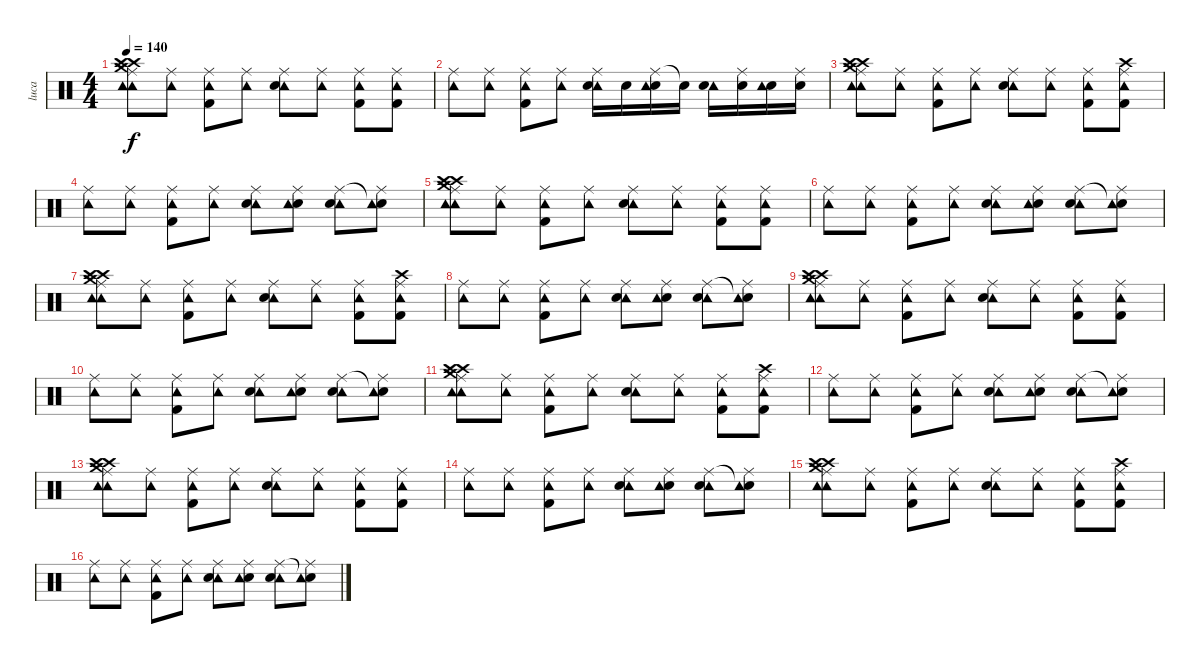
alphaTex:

\track ("luca" "luca") {instrument percussion}
\staff {score}
\articulation defaults
\ts (4 4)
\tempo 140
\clef neutral
\ks c
("Crash high (hit)" "Ride (middle)" "Tambourine (hit)" "Crash high (hit)" "Crash medium (hit)" "Tambourine (hit)").8{dy f} ("Ride (middle)" "Tambourine (hit)").8 ("Tambourine (hit)" "Ride (middle)" "Kick (hit) 2").8 ("Ride (middle)" "Tambourine (hit)").8 ("Tambourine (hit)" "Ride (middle)" "Snare (hit) 2").8 ("Ride (middle)" "Tambourine (hit)").8 ("Tambourine (hit)" "Ride (middle)" "Kick (hit) 2").8 ("Ride (middle)" "Kick (hit) 2" "Tambourine (hit)").8 |
("Tambourine (hit)" "Ride (middle)").8 ("Ride (middle)" "Tambourine (hit)").8 ("Tambourine (hit)" "Ride (middle)" "Kick (hit) 2").8 ("Ride (middle)" "Tambourine (hit)").8 ("Tambourine (hit)" "Ride (middle)" "Snare (hit) 2").16 "Snare (hit) 2".16 ("Ride (middle)" "Snare (hit) 2" "Tambourine (hit)").16 "Snare (hit)"{t}.16 ("Tambourine (hit)" "Snare (hit) 2").16 ("Ride (middle)" "Snare (hit) 2").16 ("Snare (hit) 2" "Tambourine (hit)").16 ("Ride (middle)" "Snare (hit) 2").16 |
("Crash high (hit)" "Ride (middle)" "Tambourine (hit)" "Crash high (hit)" "Crash medium (hit)" "Tambourine (hit)").8 ("Ride (middle)" "Tambourine (hit)").8 ("Tambourine (hit)" "Ride (middle)" "Kick (hit) 2").8 ("Ride (middle)" "Tambourine (hit)").8 ("Tambourine (hit)" "Ride (middle)" "Snare (hit) 2").8 ("Ride (middle)" "Tambourine (hit)").8 ("Tambourine (hit)" "Ride (middle)" "Kick (hit) 2").8 ("Ride (middle)" "Kick (hit) 2" "Crash high (hit)" "Tambourine (hit)").8 |
("Tambourine (hit)" "Ride (middle)").8 ("Ride (middle)" "Tambourine (hit)").8 ("Tambourine (hit)" "Ride (middle)" "Kick (hit) 2").8 ("Ride (middle)" "Tambourine (hit)").8 ("Tambourine (hit)" "Ride (middle)" "Snare (hit) 2").8 ("Ride (middle)" "Snare (hit) 2" "Tambourine (hit)").8 ("Tambourine (hit)" "Ride (middle)" "Snare (hit) 2").8 ("Ride (middle)" "Snare (hit)"{t} "Tambourine (hit)").8 |
("Crash high (hit)" "Ride (middle)" "Tambourine (hit)" "Crash high (hit)" "Crash medium (hit)" "Tambourine (hit)").8 ("Ride (middle)" "Tambourine (hit)").8 ("Tambourine (hit)" "Ride (middle)" "Kick (hit) 2").8 ("Ride (middle)" "Tambourine (hit)").8 ("Tambourine (hit)" "Ride (middle)" "Snare (hit) 2").8 ("Ride (middle)" "Tambourine (hit)").8 ("Tambourine (hit)" "Ride (middle)" "Kick (hit) 2").8 ("Ride (middle)" "Kick (hit) 2" "Tambourine (hit)").8 |
("Tambourine (hit)" "Ride (middle)").8 ("Ride (middle)" "Tambourine (hit)").8 ("Tambourine (hit)" "Ride (middle)" "Kick (hit) 2").8 ("Ride (middle)" "Tambourine (hit)").8 ("Tambourine (hit)" "Ride (middle)" "Snare (hit) 2").8 ("Ride (middle)" "Snare (hit) 2" "Tambourine (hit)").8 ("Tambourine (hit)" "Ride (middle)" "Snare (hit) 2").8 ("Ride (middle)" "Snare (hit)"{t} "Tambourine (hit)").8 |
("Crash high (hit)" "Ride (middle)" "Tambourine (hit)" "Crash high (hit)" "Crash medium (hit)" "Tambourine (hit)").8 ("Ride (middle)" "Tambourine (hit)").8 ("Tambourine (hit)" "Ride (middle)" "Kick (hit) 2").8 ("Ride (middle)" "Tambourine (hit)").8 ("Tambourine (hit)" "Ride (middle)" "Snare (hit) 2").8 ("Ride (middle)" "Tambourine (hit)").8 ("Tambourine (hit)" "Ride (middle)" "Kick (hit) 2").8 ("Ride (middle)" "Kick (hit) 2" "Crash high (hit)" "Tambourine (hit)").8 |
("Tambourine (hit)" "Ride (middle)").8 ("Ride (middle)" "Tambourine (hit)").8 ("Tambourine (hit)" "Ride (middle)" "Kick (hit) 2").8 ("Ride (middle)" "Tambourine (hit)").8 ("Tambourine (hit)" "Ride (middle)" "Snare (hit) 2").8 ("Ride (middle)" "Snare (hit) 2" "Tambourine (hit)").8 ("Tambourine (hit)" "Ride (middle)" "Snare (hit) 2").8 ("Ride (middle)" "Snare (hit)"{t} "Tambourine (hit)").8 |
("Crash high (hit)" "Ride (middle)" "Tambourine (hit)" "Crash high (hit)" "Crash medium (hit)" "Tambourine (hit)").8 ("Ride (middle)" "Tambourine (hit)").8 ("Tambourine (hit)" "Ride (middle)" "Kick (hit) 2").8 ("Ride (middle)" "Tambourine (hit)").8 ("Tambourine (hit)" "Ride (middle)" "Snare (hit) 2").8 ("Ride (middle)" "Tambourine (hit)").8 ("Tambourine (hit)" "Ride (middle)" "Kick (hit) 2").8 ("Ride (middle)" "Kick (hit) 2" "Tambourine (hit)").8 |
("Tambourine (hit)" "Ride (middle)").8 ("Ride (middle)" "Tambourine (hit)").8 ("Tambourine (hit)" "Ride (middle)" "Kick (hit) 2").8 ("Ride (middle)" "Tambourine (hit)").8 ("Tambourine (hit)" "Ride (middle)" "Snare (hit) 2").8 ("Ride (middle)" "Snare (hit) 2" "Tambourine (hit)").8 ("Tambourine (hit)" "Ride (middle)" "Snare (hit) 2").8 ("Ride (middle)" "Snare (hit)"{t} "Tambourine (hit)").8 |
("Crash high (hit)" "Ride (middle)" "Tambourine (hit)" "Crash high (hit)" "Crash medium (hit)" "Tambourine (hit)").8 ("Ride (middle)" "Tambourine (hit)").8 ("Tambourine (hit)" "Ride (middle)" "Kick (hit) 2").8 ("Ride (middle)" "Tambourine (hit)").8 ("Tambourine (hit)" "Ride (middle)" "Snare (hit) 2").8 ("Ride (middle)" "Tambourine (hit)").8 ("Tambourine (hit)" "Ride (middle)" "Kick (hit) 2").8 ("Ride (middle)" "Kick (hit) 2" "Crash high (hit)" "Tambourine (hit)").8 |
("Tambourine (hit)" "Ride (middle)").8 ("Ride (middle)" "Tambourine (hit)").8 ("Tambourine (hit)" "Ride (middle)" "Kick (hit) 2").8 ("Ride (middle)" "Tambourine (hit)").8 ("Tambourine (hit)" "Ride (middle)" "Snare (hit) 2").8 ("Ride (middle)" "Snare (hit) 2" "Tambourine (hit)").8 ("Tambourine (hit)" "Ride (middle)" "Snare (hit) 2").8 ("Ride (middle)" "Snare (hit)"{t} "Tambourine (hit)").8 |
("Crash high (hit)" "Ride (middle)" "Tambourine (hit)" "Crash high (hit)" "Crash medium (hit)" "Tambourine (hit)").8 ("Ride (middle)" "Tambourine (hit)").8 ("Tambourine (hit)" "Ride (middle)" "Kick (hit) 2").8 ("Ride (middle)" "Tambourine (hit)").8 ("Tambourine (hit)" "Ride (middle)" "Snare (hit) 2").8 ("Ride (middle)" "Tambourine (hit)").8 ("Tambourine (hit)" "Ride (middle)" "Kick (hit) 2").8 ("Ride (middle)" "Kick (hit) 2" "Tambourine (hit)").8 |
("Tambourine (hit)" "Ride (middle)").8 ("Ride (middle)" "Tambourine (hit)").8 ("Tambourine (hit)" "Ride (middle)" "Kick (hit) 2").8 ("Ride (middle)" "Tambourine (hit)").8 ("Tambourine (hit)" "Ride (middle)" "Snare (hit) 2").8 ("Ride (middle)" "Snare (hit) 2" "Tambourine (hit)").8 ("Tambourine (hit)" "Ride (middle)" "Snare (hit) 2").8 ("Ride (middle)" "Snare (hit)"{t} "Tambourine (hit)").8 |
("Crash high (hit)" "Ride (middle)" "Tambourine (hit)" "Crash high (hit)" "Crash medium (hit)" "Tambourine (hit)").8 ("Ride (middle)" "Tambourine (hit)").8 ("Tambourine (hit)" "Ride (middle)" "Kick (hit) 2").8 ("Ride (middle)" "Tambourine (hit)").8 ("Tambourine (hit)" "Ride (middle)" "Snare (hit) 2").8 ("Ride (middle)" "Tambourine (hit)").8 ("Tambourine (hit)" "Ride (middle)" "Kick (hit) 2").8 ("Ride (middle)" "Kick (hit) 2" "Crash high (hit)" "Tambourine (hit)").8 |
("Tambourine (hit)" "Ride (middle)").8 ("Ride (middle)" "Tambourine (hit)").8 ("Tambourine (hit)" "Ride (middle)" "Kick (hit) 2").8 ("Ride (middle)" "Tambourine (hit)").8 ("Tambourine (hit)" "Ride (middle)" "Snare (hit) 2").8 ("Ride (middle)" "Snare (hit) 2" "Tambourine (hit)").8 ("Tambourine (hit)" "Ride (middle)" "Snare (hit) 2").8 ("Ride (middle)" "Snare (hit)"{t} "Tambourine (hit)").8
